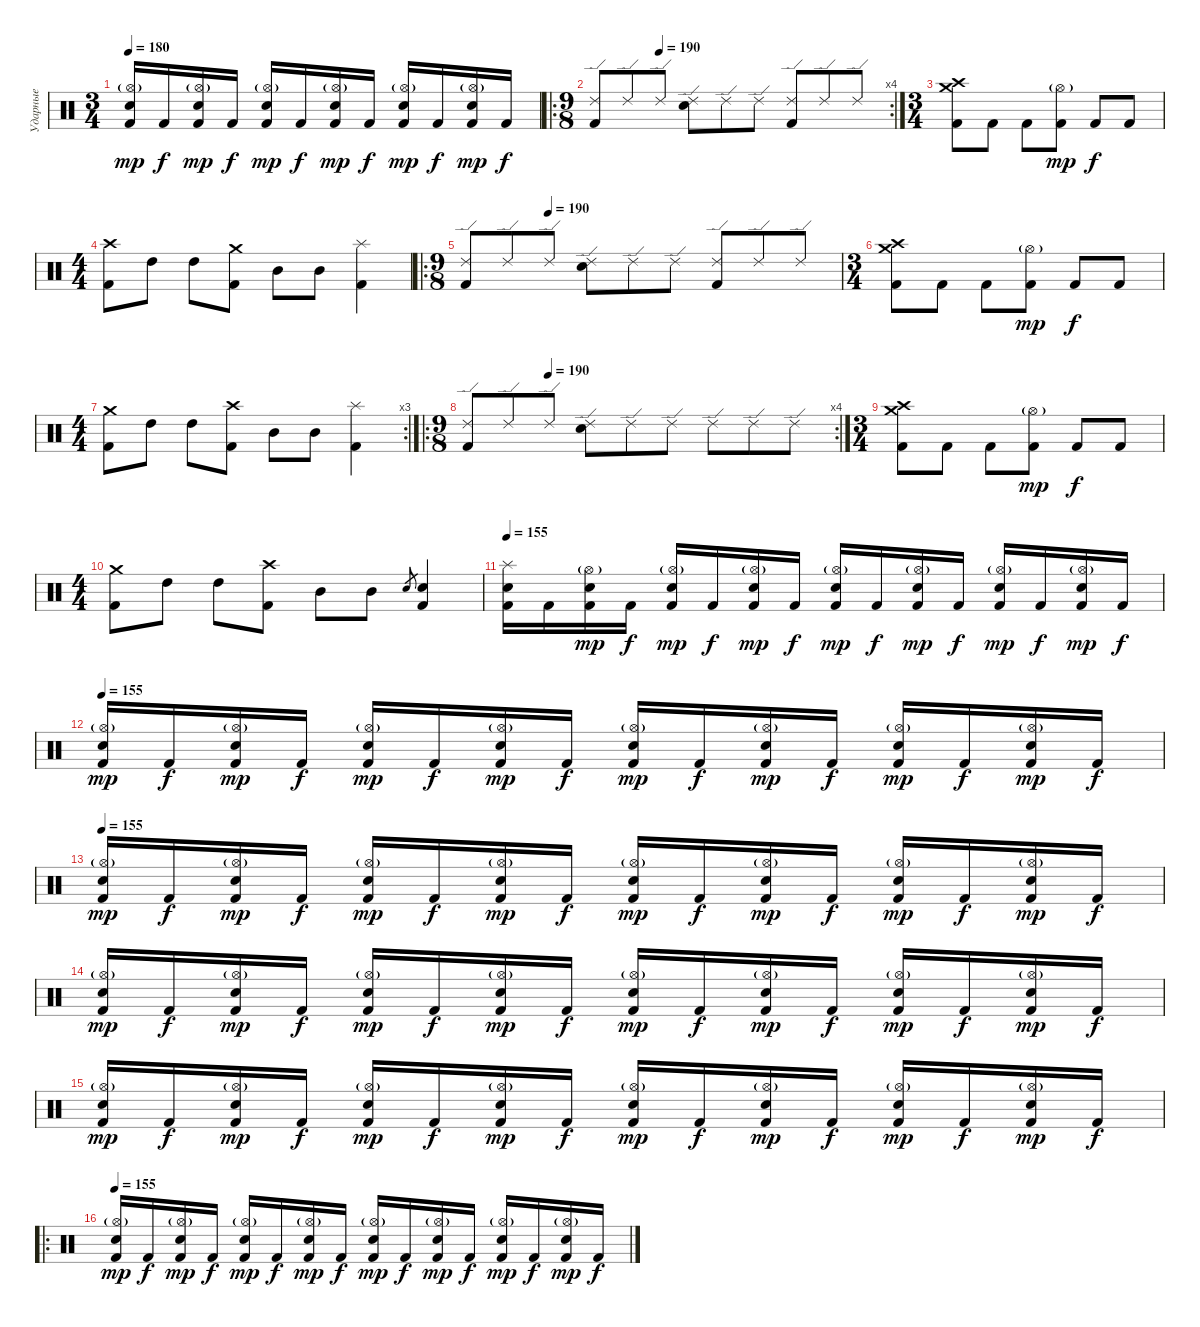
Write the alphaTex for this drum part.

\track ("Ударные" "Ударные") {instrument percussion}
\staff {score}
\articulation defaults
\ts (3 4)
\tempo 180
\clef neutral
\ks c
("Electric Snare (hit)" "Hi-Hat (open)"{g} "Kick (hit) 2").16{dy mp} "Kick (hit) 2".16{dy f} ("Electric Snare (hit)" "Hi-Hat (open)"{g} "Kick (hit) 2").16{dy mp} "Kick (hit) 2".16{dy f} ("Electric Snare (hit)" "Hi-Hat (open)"{g} "Kick (hit) 2").16{dy mp} "Kick (hit) 2".16{dy f} ("Electric Snare (hit)" "Hi-Hat (open)"{g} "Kick (hit) 2").16{dy mp} "Kick (hit) 2".16{dy f} ("Electric Snare (hit)" "Hi-Hat (open)"{g} "Kick (hit) 2").16{dy mp} "Kick (hit) 2".16{dy f} ("Electric Snare (hit)" "Hi-Hat (open)"{g} "Kick (hit) 2").16{dy mp} "Kick (hit) 2".16{dy f} |
\ro
\rc 4
\ts (9 8)
\tempo (190 0.2222222222222222)
("Ride (edge) 2" "Kick (hit) 2").8 "Ride (edge) 2".8 "Ride (edge) 2".8 ("Electric Snare (hit)" "Ride (edge) 2").8 "Ride (edge) 2".8 "Ride (edge) 2".8 ("Ride (edge) 2" "Kick (hit) 2").8 "Ride (edge) 2".8 "Ride (edge) 2".8 |
\ts (3 4)
("Crash medium (hit)" "Crash high (hit)" "Kick (hit) 2").8 "Kick (hit) 2".8 "Kick (hit) 2".8 ("Hi-Hat (open)"{g} "Kick (hit) 2").8{dy mp} "Kick (hit) 2".8{dy f} "Kick (hit) 2".8 |
\ts (4 4)
("Crash high (hit)" "Kick (hit) 2").8 "High Tom (hit)".8 "High Tom (hit)".8 ("Crash medium (hit)" "Kick (hit) 2").8 "Mid Tom (hit)".8 "Mid Tom (hit)".8 ("Splash (hit)" "Kick (hit) 2").4 |
\ro
\ts (9 8)
\tempo (190 0.2222222222222222)
("Ride (edge) 2" "Kick (hit) 2").8 "Ride (edge) 2".8 "Ride (edge) 2".8 ("Electric Snare (hit)" "Ride (edge) 2").8 "Ride (edge) 2".8 "Ride (edge) 2".8 ("Ride (edge) 2" "Kick (hit) 2").8 "Ride (edge) 2".8 "Ride (edge) 2".8 |
\ts (3 4)
("Crash medium (hit)" "Crash high (hit)" "Kick (hit) 2").8 "Kick (hit) 2".8 "Kick (hit) 2".8 ("Hi-Hat (open)"{g} "Kick (hit) 2").8{dy mp} "Kick (hit) 2".8{dy f} "Kick (hit) 2".8 |
\rc 3
\ts (4 4)
("Crash medium (hit)" "Kick (hit) 2").8 "High Tom (hit)".8 "High Tom (hit)".8 ("Crash high (hit)" "Kick (hit) 2").8 "Mid Tom (hit)".8 "Mid Tom (hit)".8 ("Splash (hit)" "Kick (hit) 2").4 |
\ro
\rc 4
\ts (9 8)
\tempo (190 0.2222222222222222)
("Ride (edge) 2" "Kick (hit) 2").8 "Ride (edge) 2".8 "Ride (edge) 2".8 ("Electric Snare (hit)" "Ride (edge) 2").8 "Ride (edge) 2".8 "Ride (edge) 2".8 "Ride (edge) 2".8 "Ride (edge) 2".8 "Ride (edge) 2".8 |
\ts (3 4)
("Crash medium (hit)" "Crash high (hit)" "Kick (hit) 2").8 "Kick (hit) 2".8 "Kick (hit) 2".8 ("Hi-Hat (open)"{g} "Kick (hit) 2").8{dy mp} "Kick (hit) 2".8{dy f} "Kick (hit) 2".8 |
\ts (4 4)
("Crash medium (hit)" "Kick (hit) 2").8 "High Tom (hit)".8 "High Tom (hit)".8 ("Crash high (hit)" "Kick (hit) 2").8 "Mid Tom (hit)".8 "Mid Tom (hit)".8 "Electric Snare (hit)".8{gr} ("Electric Snare (hit)" "Kick (hit) 2").4 |
\tempo 155
("Electric Snare (hit)" "Splash (hit)" "Kick (hit) 2").16 "Kick (hit) 2".16 ("Electric Snare (hit)" "Hi-Hat (open)"{g} "Kick (hit) 2").16{dy mp} "Kick (hit) 2".16{dy f} ("Electric Snare (hit)" "Hi-Hat (open)"{g} "Kick (hit) 2").16{dy mp} "Kick (hit) 2".16{dy f} ("Electric Snare (hit)" "Hi-Hat (open)"{g} "Kick (hit) 2").16{dy mp} "Kick (hit) 2".16{dy f} ("Electric Snare (hit)" "Hi-Hat (open)"{g} "Kick (hit) 2").16{dy mp} "Kick (hit) 2".16{dy f} ("Electric Snare (hit)" "Hi-Hat (open)"{g} "Kick (hit) 2").16{dy mp} "Kick (hit) 2".16{dy f} ("Electric Snare (hit)" "Hi-Hat (open)"{g} "Kick (hit) 2").16{dy mp} "Kick (hit) 2".16{dy f} ("Electric Snare (hit)" "Hi-Hat (open)"{g} "Kick (hit) 2").16{dy mp} "Kick (hit) 2".16{dy f} |
\tempo 155
("Electric Snare (hit)" "Hi-Hat (open)"{g} "Kick (hit) 2").16{dy mp} "Kick (hit) 2".16{dy f} ("Electric Snare (hit)" "Hi-Hat (open)"{g} "Kick (hit) 2").16{dy mp} "Kick (hit) 2".16{dy f} ("Electric Snare (hit)" "Hi-Hat (open)"{g} "Kick (hit) 2").16{dy mp} "Kick (hit) 2".16{dy f} ("Electric Snare (hit)" "Hi-Hat (open)"{g} "Kick (hit) 2").16{dy mp} "Kick (hit) 2".16{dy f} ("Electric Snare (hit)" "Hi-Hat (open)"{g} "Kick (hit) 2").16{dy mp} "Kick (hit) 2".16{dy f} ("Electric Snare (hit)" "Hi-Hat (open)"{g} "Kick (hit) 2").16{dy mp} "Kick (hit) 2".16{dy f} ("Electric Snare (hit)" "Hi-Hat (open)"{g} "Kick (hit) 2").16{dy mp} "Kick (hit) 2".16{dy f} ("Electric Snare (hit)" "Hi-Hat (open)"{g} "Kick (hit) 2").16{dy mp} "Kick (hit) 2".16{dy f} |
\tempo 155
("Electric Snare (hit)" "Hi-Hat (open)"{g} "Kick (hit) 2").16{dy mp} "Kick (hit) 2".16{dy f} ("Electric Snare (hit)" "Hi-Hat (open)"{g} "Kick (hit) 2").16{dy mp} "Kick (hit) 2".16{dy f} ("Electric Snare (hit)" "Hi-Hat (open)"{g} "Kick (hit) 2").16{dy mp} "Kick (hit) 2".16{dy f} ("Electric Snare (hit)" "Hi-Hat (open)"{g} "Kick (hit) 2").16{dy mp} "Kick (hit) 2".16{dy f} ("Electric Snare (hit)" "Hi-Hat (open)"{g} "Kick (hit) 2").16{dy mp} "Kick (hit) 2".16{dy f} ("Electric Snare (hit)" "Hi-Hat (open)"{g} "Kick (hit) 2").16{dy mp} "Kick (hit) 2".16{dy f} ("Electric Snare (hit)" "Hi-Hat (open)"{g} "Kick (hit) 2").16{dy mp} "Kick (hit) 2".16{dy f} ("Electric Snare (hit)" "Hi-Hat (open)"{g} "Kick (hit) 2").16{dy mp} "Kick (hit) 2".16{dy f} |
("Electric Snare (hit)" "Hi-Hat (open)"{g} "Kick (hit) 2").16{dy mp} "Kick (hit) 2".16{dy f} ("Electric Snare (hit)" "Hi-Hat (open)"{g} "Kick (hit) 2").16{dy mp} "Kick (hit) 2".16{dy f} ("Electric Snare (hit)" "Hi-Hat (open)"{g} "Kick (hit) 2").16{dy mp} "Kick (hit) 2".16{dy f} ("Electric Snare (hit)" "Hi-Hat (open)"{g} "Kick (hit) 2").16{dy mp} "Kick (hit) 2".16{dy f} ("Electric Snare (hit)" "Hi-Hat (open)"{g} "Kick (hit) 2").16{dy mp} "Kick (hit) 2".16{dy f} ("Electric Snare (hit)" "Hi-Hat (open)"{g} "Kick (hit) 2").16{dy mp} "Kick (hit) 2".16{dy f} ("Electric Snare (hit)" "Hi-Hat (open)"{g} "Kick (hit) 2").16{dy mp} "Kick (hit) 2".16{dy f} ("Electric Snare (hit)" "Hi-Hat (open)"{g} "Kick (hit) 2").16{dy mp} "Kick (hit) 2".16{dy f} |
("Electric Snare (hit)" "Hi-Hat (open)"{g} "Kick (hit) 2").16{dy mp} "Kick (hit) 2".16{dy f} ("Electric Snare (hit)" "Hi-Hat (open)"{g} "Kick (hit) 2").16{dy mp} "Kick (hit) 2".16{dy f} ("Electric Snare (hit)" "Hi-Hat (open)"{g} "Kick (hit) 2").16{dy mp} "Kick (hit) 2".16{dy f} ("Electric Snare (hit)" "Hi-Hat (open)"{g} "Kick (hit) 2").16{dy mp} "Kick (hit) 2".16{dy f} ("Electric Snare (hit)" "Hi-Hat (open)"{g} "Kick (hit) 2").16{dy mp} "Kick (hit) 2".16{dy f} ("Electric Snare (hit)" "Hi-Hat (open)"{g} "Kick (hit) 2").16{dy mp} "Kick (hit) 2".16{dy f} ("Electric Snare (hit)" "Hi-Hat (open)"{g} "Kick (hit) 2").16{dy mp} "Kick (hit) 2".16{dy f} ("Electric Snare (hit)" "Hi-Hat (open)"{g} "Kick (hit) 2").16{dy mp} "Kick (hit) 2".16{dy f} |
\ro
\tempo 155
("Electric Snare (hit)" "Hi-Hat (open)"{g} "Kick (hit) 2").16{dy mp} "Kick (hit) 2".16{dy f} ("Electric Snare (hit)" "Hi-Hat (open)"{g} "Kick (hit) 2").16{dy mp} "Kick (hit) 2".16{dy f} ("Electric Snare (hit)" "Hi-Hat (open)"{g} "Kick (hit) 2").16{dy mp} "Kick (hit) 2".16{dy f} ("Electric Snare (hit)" "Hi-Hat (open)"{g} "Kick (hit) 2").16{dy mp} "Kick (hit) 2".16{dy f} ("Electric Snare (hit)" "Hi-Hat (open)"{g} "Kick (hit) 2").16{dy mp} "Kick (hit) 2".16{dy f} ("Electric Snare (hit)" "Hi-Hat (open)"{g} "Kick (hit) 2").16{dy mp} "Kick (hit) 2".16{dy f} ("Electric Snare (hit)" "Hi-Hat (open)"{g} "Kick (hit) 2").16{dy mp} "Kick (hit) 2".16{dy f} ("Electric Snare (hit)" "Hi-Hat (open)"{g} "Kick (hit) 2").16{dy mp} "Kick (hit) 2".16{dy f}
